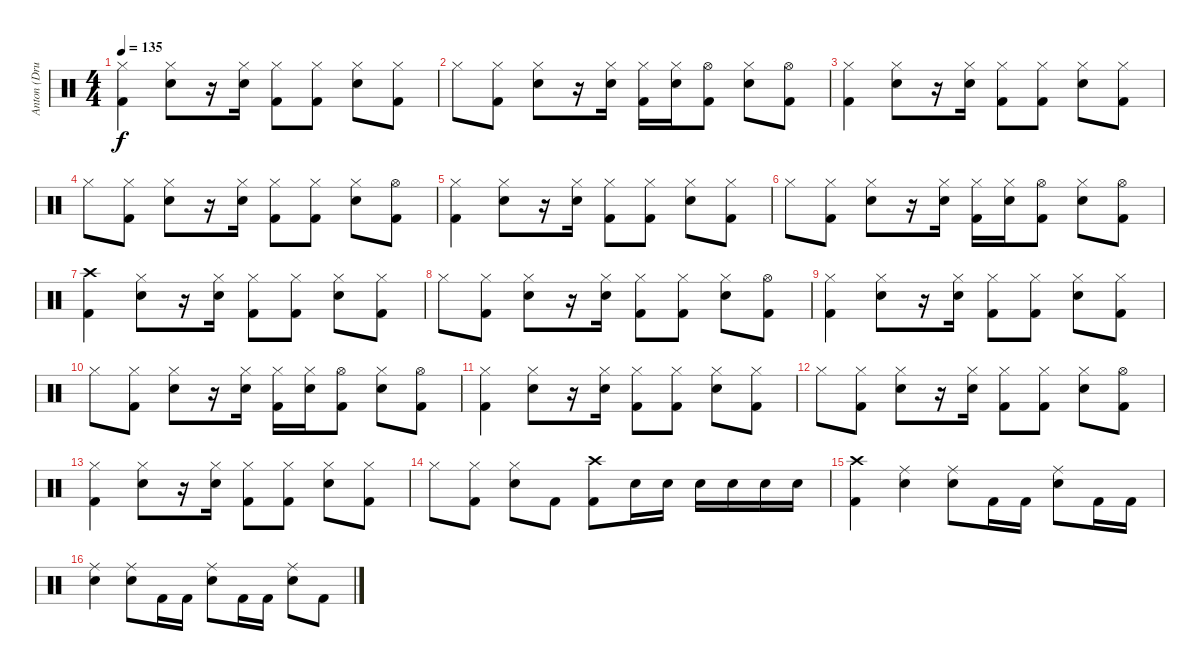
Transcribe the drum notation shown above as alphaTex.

\track ("Anton (Drum)" "Anton (Dru") {instrument percussion}
\staff {score}
\articulation defaults
\ts (4 4)
\tempo 135
\clef neutral
\ks c
("Kick (hit) 2" "Hi-Hat (closed)").4{dy f} ("Snare (hit) 2" "Hi-Hat (closed)").8 r.16 ("Snare (hit) 2" "Hi-Hat (closed)").16 ("Kick (hit) 2" "Hi-Hat (closed)").8 ("Kick (hit) 2" "Hi-Hat (closed)").8 ("Snare (hit) 2" "Hi-Hat (closed)").8 ("Kick (hit) 2" "Hi-Hat (closed)").8 |
"Hi-Hat (closed)".8 ("Kick (hit) 2" "Hi-Hat (closed)").8 ("Snare (hit) 2" "Hi-Hat (closed)").8 r.16 ("Snare (hit) 2" "Hi-Hat (closed)").16 ("Kick (hit) 2" "Hi-Hat (closed)").16 ("Snare (hit) 2" "Hi-Hat (closed)").16 ("Kick (hit) 2" "Hi-Hat (open)").8 ("Snare (hit) 2" "Hi-Hat (closed)").8 ("Kick (hit) 2" "Hi-Hat (open)").8 |
("Kick (hit) 2" "Hi-Hat (closed)").4 ("Snare (hit) 2" "Hi-Hat (closed)").8 r.16 ("Snare (hit) 2" "Hi-Hat (closed)").16 ("Kick (hit) 2" "Hi-Hat (closed)").8 ("Kick (hit) 2" "Hi-Hat (closed)").8 ("Snare (hit) 2" "Hi-Hat (closed)").8 ("Kick (hit) 2" "Hi-Hat (closed)").8 |
"Hi-Hat (closed)".8 ("Kick (hit) 2" "Hi-Hat (closed)").8 ("Snare (hit) 2" "Hi-Hat (closed)").8 r.16 ("Snare (hit) 2" "Hi-Hat (closed)").16 ("Kick (hit) 2" "Hi-Hat (closed)").8 ("Kick (hit) 2" "Hi-Hat (closed)").8 ("Snare (hit) 2" "Hi-Hat (closed)").8 ("Kick (hit) 2" "Hi-Hat (open)").8 |
("Kick (hit) 2" "Hi-Hat (closed)").4 ("Snare (hit) 2" "Hi-Hat (closed)").8 r.16 ("Snare (hit) 2" "Hi-Hat (closed)").16 ("Kick (hit) 2" "Hi-Hat (closed)").8 ("Kick (hit) 2" "Hi-Hat (closed)").8 ("Snare (hit) 2" "Hi-Hat (closed)").8 ("Kick (hit) 2" "Hi-Hat (closed)").8 |
"Hi-Hat (closed)".8 ("Kick (hit) 2" "Hi-Hat (closed)").8 ("Snare (hit) 2" "Hi-Hat (closed)").8 r.16 ("Snare (hit) 2" "Hi-Hat (closed)").16 ("Kick (hit) 2" "Hi-Hat (closed)").16 ("Snare (hit) 2" "Hi-Hat (closed)").16 ("Kick (hit) 2" "Hi-Hat (open)").8 ("Snare (hit) 2" "Hi-Hat (closed)").8 ("Kick (hit) 2" "Hi-Hat (open)").8 |
("Crash high (hit)" "Kick (hit) 2").4 ("Snare (hit) 2" "Hi-Hat (closed)").8 r.16 ("Snare (hit) 2" "Hi-Hat (closed)").16 ("Kick (hit) 2" "Hi-Hat (closed)").8 ("Kick (hit) 2" "Hi-Hat (closed)").8 ("Snare (hit) 2" "Hi-Hat (closed)").8 ("Kick (hit) 2" "Hi-Hat (closed)").8 |
"Hi-Hat (closed)".8 ("Kick (hit) 2" "Hi-Hat (closed)").8 ("Snare (hit) 2" "Hi-Hat (closed)").8 r.16 ("Snare (hit) 2" "Hi-Hat (closed)").16 ("Kick (hit) 2" "Hi-Hat (closed)").8 ("Kick (hit) 2" "Hi-Hat (closed)").8 ("Snare (hit) 2" "Hi-Hat (closed)").8 ("Kick (hit) 2" "Hi-Hat (open)").8 |
("Kick (hit) 2" "Hi-Hat (closed)").4 ("Snare (hit) 2" "Hi-Hat (closed)").8 r.16 ("Snare (hit) 2" "Hi-Hat (closed)").16 ("Kick (hit) 2" "Hi-Hat (closed)").8 ("Kick (hit) 2" "Hi-Hat (closed)").8 ("Snare (hit) 2" "Hi-Hat (closed)").8 ("Kick (hit) 2" "Hi-Hat (closed)").8 |
"Hi-Hat (closed)".8 ("Kick (hit) 2" "Hi-Hat (closed)").8 ("Snare (hit) 2" "Hi-Hat (closed)").8 r.16 ("Snare (hit) 2" "Hi-Hat (closed)").16 ("Kick (hit) 2" "Hi-Hat (closed)").16 ("Snare (hit) 2" "Hi-Hat (closed)").16 ("Kick (hit) 2" "Hi-Hat (open)").8 ("Snare (hit) 2" "Hi-Hat (closed)").8 ("Kick (hit) 2" "Hi-Hat (open)").8 |
("Kick (hit) 2" "Hi-Hat (closed)").4 ("Snare (hit) 2" "Hi-Hat (closed)").8 r.16 ("Snare (hit) 2" "Hi-Hat (closed)").16 ("Kick (hit) 2" "Hi-Hat (closed)").8 ("Kick (hit) 2" "Hi-Hat (closed)").8 ("Snare (hit) 2" "Hi-Hat (closed)").8 ("Kick (hit) 2" "Hi-Hat (closed)").8 |
"Hi-Hat (closed)".8 ("Kick (hit) 2" "Hi-Hat (closed)").8 ("Snare (hit) 2" "Hi-Hat (closed)").8 r.16 ("Snare (hit) 2" "Hi-Hat (closed)").16 ("Kick (hit) 2" "Hi-Hat (closed)").8 ("Kick (hit) 2" "Hi-Hat (closed)").8 ("Snare (hit) 2" "Hi-Hat (closed)").8 ("Kick (hit) 2" "Hi-Hat (open)").8 |
("Kick (hit) 2" "Hi-Hat (closed)").4 ("Snare (hit) 2" "Hi-Hat (closed)").8 r.16 ("Snare (hit) 2" "Hi-Hat (closed)").16 ("Kick (hit) 2" "Hi-Hat (closed)").8 ("Kick (hit) 2" "Hi-Hat (closed)").8 ("Snare (hit) 2" "Hi-Hat (closed)").8 ("Kick (hit) 2" "Hi-Hat (closed)").8 |
"Hi-Hat (closed)".8 ("Kick (hit) 2" "Hi-Hat (closed)").8 ("Snare (hit) 2" "Hi-Hat (closed)").8 "Kick (hit) 2".8 ("Kick (hit) 2" "Crash high (hit)").8 "Snare (hit) 2".16 "Snare (hit) 2".16 "Snare (hit) 2".16 "Snare (hit) 2".16 "Snare (hit) 2".16 "Snare (hit) 2".16 |
("Kick (hit) 2" "Crash high (hit)").4 ("Snare (hit) 2" "Ride (middle)").4 ("Snare (hit) 2" "Ride (middle)").8 "Kick (hit) 2".16 "Kick (hit) 2".16 ("Snare (hit) 2" "Ride (middle)").8 "Kick (hit) 2".16 "Kick (hit) 2".16 |
("Snare (hit) 2" "Ride (middle)").4 ("Snare (hit) 2" "Ride (middle)").8 "Kick (hit) 2".16 "Kick (hit) 2".16 ("Snare (hit) 2" "Ride (middle)").8 "Kick (hit) 2".16 "Kick (hit) 2".16 ("Snare (hit) 2" "Ride (middle)").8 "Kick (hit) 2".8
